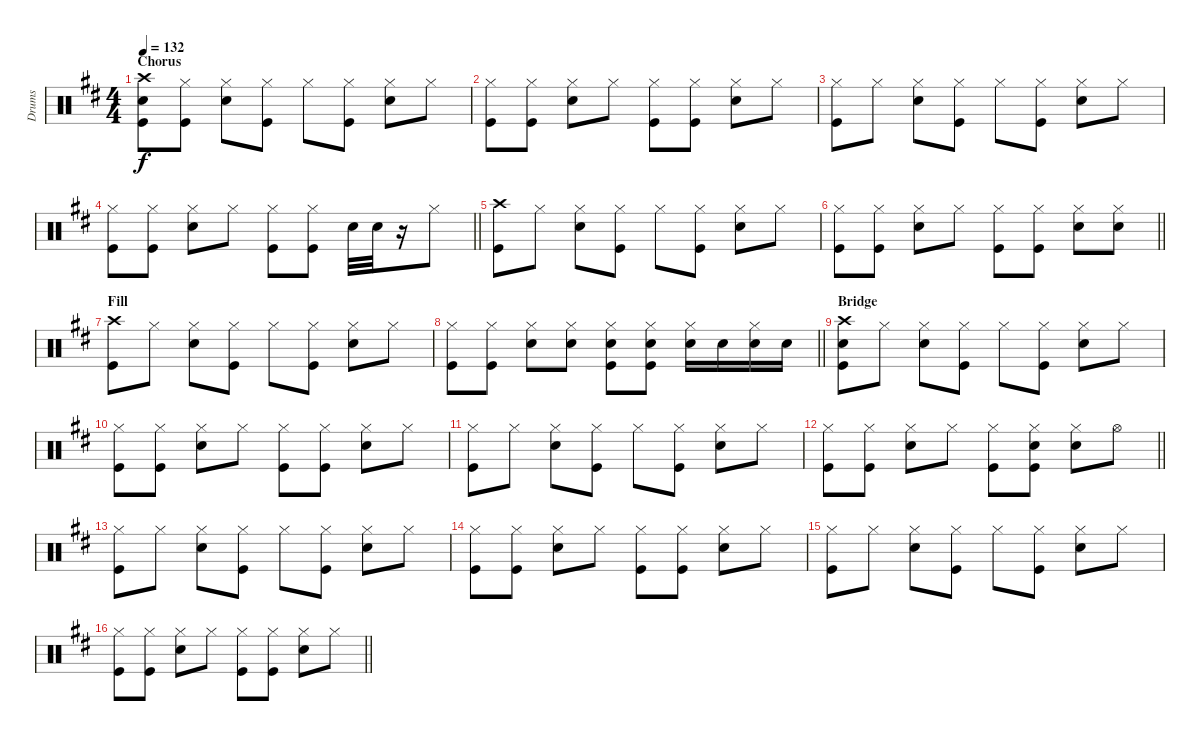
\track ("Drums" "Drums") {instrument percussion}
\staff {score}
\articulation defaults
\ts (4 4)
\section ("" "Chorus")
\tempo 132
\clef neutral
\ks d
("Crash high (hit)" "Electric Snare (hit)" "Kick (hit)").8{dy f} ("Hi-Hat (closed)" "Kick (hit)").8 ("Hi-Hat (closed)" "Electric Snare (hit)").8 ("Hi-Hat (closed)" "Kick (hit)").8 "Hi-Hat (closed)".8 ("Hi-Hat (closed)" "Kick (hit)").8 ("Hi-Hat (closed)" "Electric Snare (hit)").8 "Hi-Hat (closed)".8 |
("Hi-Hat (closed)" "Kick (hit)").8 ("Hi-Hat (closed)" "Kick (hit)").8 ("Hi-Hat (closed)" "Electric Snare (hit)").8 "Hi-Hat (closed)".8 ("Hi-Hat (closed)" "Kick (hit)").8 ("Hi-Hat (closed)" "Kick (hit)").8 ("Hi-Hat (closed)" "Electric Snare (hit)").8 "Hi-Hat (closed)".8 |
("Hi-Hat (closed)" "Kick (hit)").8 "Hi-Hat (closed)".8 ("Hi-Hat (closed)" "Electric Snare (hit)").8 ("Hi-Hat (closed)" "Kick (hit)").8 "Hi-Hat (closed)".8 ("Hi-Hat (closed)" "Kick (hit)").8 ("Hi-Hat (closed)" "Electric Snare (hit)").8 "Hi-Hat (closed)".8 |
\barLineRight lightlight
("Hi-Hat (closed)" "Kick (hit)").8 ("Hi-Hat (closed)" "Kick (hit)").8 ("Hi-Hat (closed)" "Electric Snare (hit)").8 "Hi-Hat (closed)".8 ("Hi-Hat (closed)" "Kick (hit)").8 ("Hi-Hat (closed)" "Kick (hit)").8 "Electric Snare (hit)".32 "Electric Snare (hit)".32 r.16 "Hi-Hat (closed)".8 |
("Crash high (hit)" "Kick (hit)").8 "Hi-Hat (closed)".8 ("Hi-Hat (closed)" "Electric Snare (hit)").8 ("Hi-Hat (closed)" "Kick (hit)").8 "Hi-Hat (closed)".8 ("Hi-Hat (closed)" "Kick (hit)").8 ("Hi-Hat (closed)" "Electric Snare (hit)").8 "Hi-Hat (closed)".8 |
\barLineRight lightlight
("Hi-Hat (closed)" "Kick (hit)").8 ("Hi-Hat (closed)" "Kick (hit)").8 ("Hi-Hat (closed)" "Electric Snare (hit)").8 "Hi-Hat (closed)".8 ("Hi-Hat (closed)" "Kick (hit)").8 ("Hi-Hat (closed)" "Kick (hit)").8 ("Hi-Hat (closed)" "Electric Snare (hit)").8 ("Hi-Hat (closed)" "Electric Snare (hit)").8 |
\section ("" "Fill")
("Crash high (hit)" "Kick (hit)").8 "Hi-Hat (closed)".8 ("Hi-Hat (closed)" "Electric Snare (hit)").8 ("Hi-Hat (closed)" "Kick (hit)").8 "Hi-Hat (closed)".8 ("Hi-Hat (closed)" "Kick (hit)").8 ("Hi-Hat (closed)" "Electric Snare (hit)").8 "Hi-Hat (closed)".8 |
\barLineRight lightlight
("Hi-Hat (closed)" "Kick (hit)").8 ("Hi-Hat (closed)" "Kick (hit)").8 ("Hi-Hat (closed)" "Electric Snare (hit)").8 ("Hi-Hat (closed)" "Electric Snare (hit)").8 ("Hi-Hat (closed)" "Electric Snare (hit)" "Kick (hit)").8 ("Hi-Hat (closed)" "Electric Snare (hit)" "Kick (hit)").8 ("Hi-Hat (closed)" "Electric Snare (hit)").16 "Electric Snare (hit)".16 ("Hi-Hat (closed)" "Electric Snare (hit)").16 "Electric Snare (hit)".16 |
\section ("" "Bridge")
("Crash high (hit)" "Electric Snare (hit)" "Kick (hit)").8 "Hi-Hat (closed)".8 ("Hi-Hat (closed)" "Electric Snare (hit)").8 ("Hi-Hat (closed)" "Kick (hit)").8 "Hi-Hat (closed)".8 ("Hi-Hat (closed)" "Kick (hit)").8 ("Hi-Hat (closed)" "Electric Snare (hit)").8 "Hi-Hat (closed)".8 |
("Hi-Hat (closed)" "Kick (hit)").8 ("Hi-Hat (closed)" "Kick (hit)").8 ("Hi-Hat (closed)" "Electric Snare (hit)").8 "Hi-Hat (closed)".8 ("Hi-Hat (closed)" "Kick (hit)").8 ("Hi-Hat (closed)" "Kick (hit)").8 ("Hi-Hat (closed)" "Electric Snare (hit)").8 "Hi-Hat (closed)".8 |
("Hi-Hat (closed)" "Kick (hit)").8 "Hi-Hat (closed)".8 ("Hi-Hat (closed)" "Electric Snare (hit)").8 ("Hi-Hat (closed)" "Kick (hit)").8 "Hi-Hat (closed)".8 ("Hi-Hat (closed)" "Kick (hit)").8 ("Hi-Hat (closed)" "Electric Snare (hit)").8 "Hi-Hat (closed)".8 |
\barLineRight lightlight
("Hi-Hat (closed)" "Kick (hit)").8 ("Hi-Hat (closed)" "Kick (hit)").8 ("Hi-Hat (closed)" "Electric Snare (hit)").8 "Hi-Hat (closed)".8 ("Hi-Hat (closed)" "Kick (hit)").8 ("Hi-Hat (closed)" "Electric Snare (hit)" "Kick (hit)").8 ("Hi-Hat (closed)" "Electric Snare (hit)").8 "Hi-Hat (open)".8 |
("Hi-Hat (closed)" "Kick (hit)").8 "Hi-Hat (closed)".8 ("Hi-Hat (closed)" "Electric Snare (hit)").8 ("Hi-Hat (closed)" "Kick (hit)").8 "Hi-Hat (closed)".8 ("Hi-Hat (closed)" "Kick (hit)").8 ("Hi-Hat (closed)" "Electric Snare (hit)").8 "Hi-Hat (closed)".8 |
("Hi-Hat (closed)" "Kick (hit)").8 ("Hi-Hat (closed)" "Kick (hit)").8 ("Hi-Hat (closed)" "Electric Snare (hit)").8 "Hi-Hat (closed)".8 ("Hi-Hat (closed)" "Kick (hit)").8 ("Hi-Hat (closed)" "Kick (hit)").8 ("Hi-Hat (closed)" "Electric Snare (hit)").8 "Hi-Hat (closed)".8 |
("Hi-Hat (closed)" "Kick (hit)").8 "Hi-Hat (closed)".8 ("Hi-Hat (closed)" "Electric Snare (hit)").8 ("Hi-Hat (closed)" "Kick (hit)").8 "Hi-Hat (closed)".8 ("Hi-Hat (closed)" "Kick (hit)").8 ("Hi-Hat (closed)" "Electric Snare (hit)").8 "Hi-Hat (closed)".8 |
\barLineRight lightlight
("Hi-Hat (closed)" "Kick (hit)").8 ("Hi-Hat (closed)" "Kick (hit)").8 ("Hi-Hat (closed)" "Electric Snare (hit)").8 "Hi-Hat (closed)".8 ("Hi-Hat (closed)" "Kick (hit)").8 ("Hi-Hat (closed)" "Kick (hit)").8 ("Hi-Hat (closed)" "Electric Snare (hit)").8 "Hi-Hat (closed)".8
